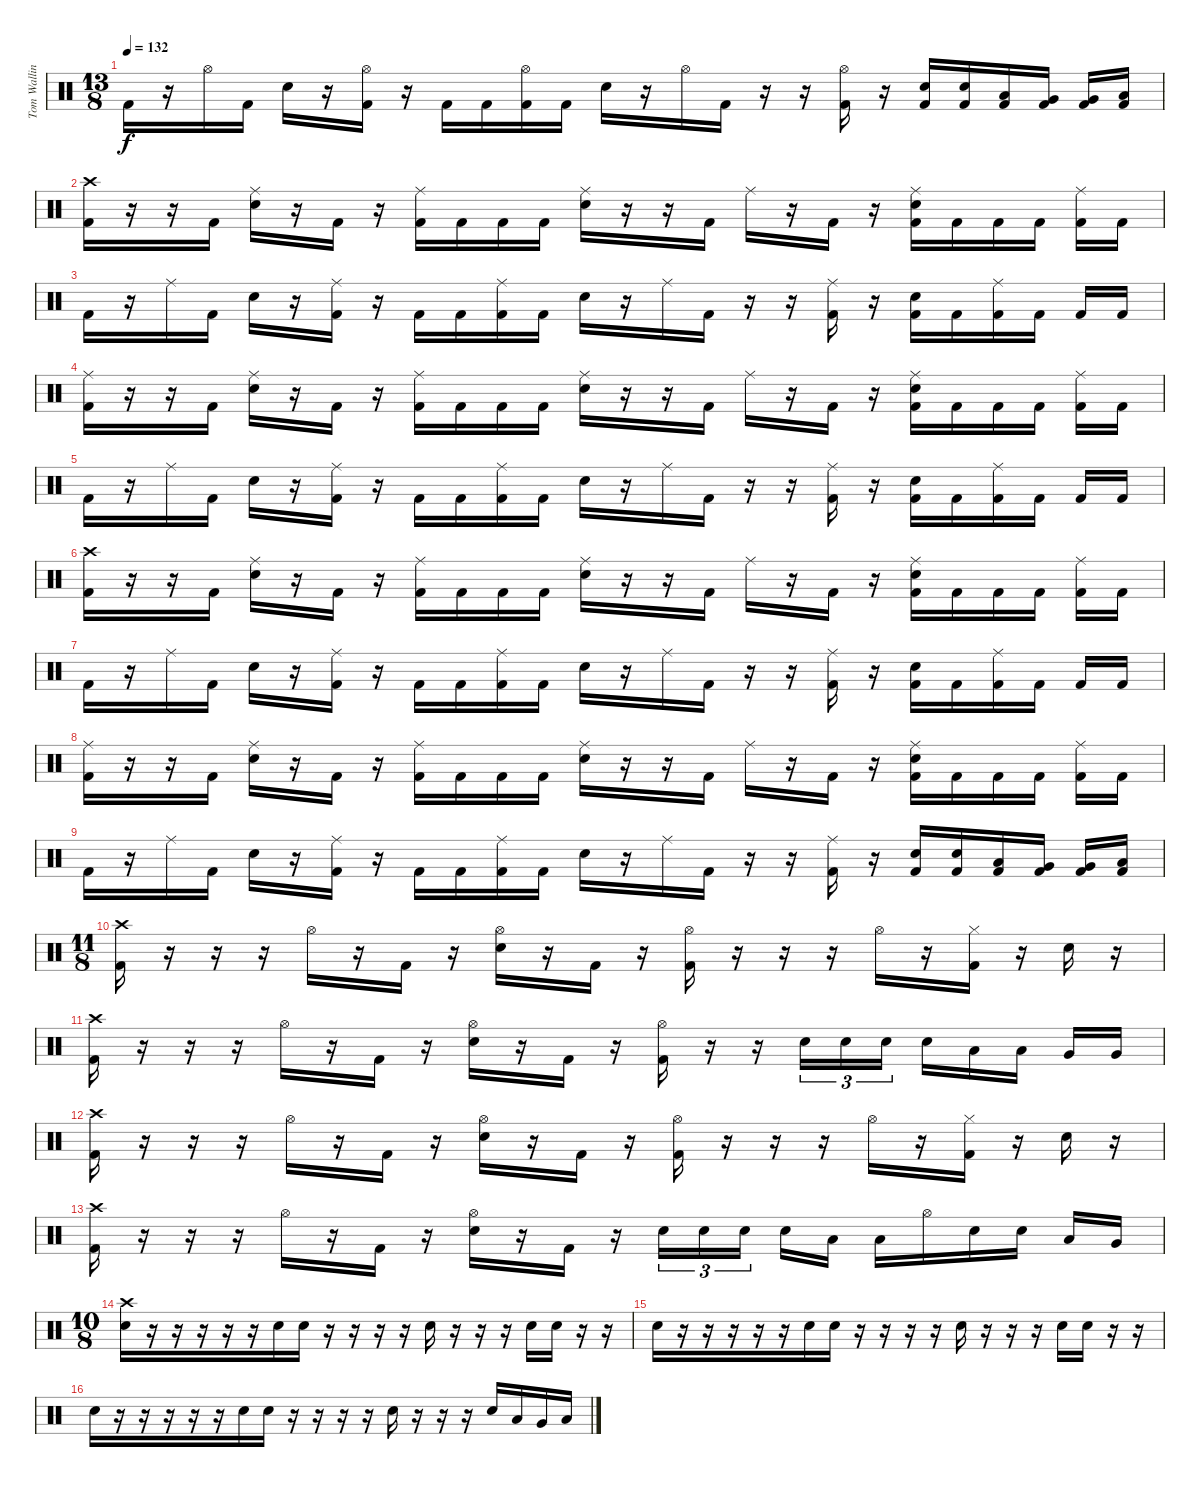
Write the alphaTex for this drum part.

\track ("Tom Walling [Drums]" "Tom Wallin") {instrument percussion}
\staff {score}
\articulation defaults
\ts (13 8)
\tempo 132
\clef neutral
\ks c "Kick (hit) 2".16{dy f}
r.16 "Hi-Hat (open)".16 "Kick (hit) 2".16 "Electric Snare (hit)".16 r.16 ("Hi-Hat (open)" "Kick (hit) 2").16 r.16 "Kick (hit) 2".16 "Kick (hit) 2".16 ("Hi-Hat (open)" "Kick (hit) 2").16 "Kick (hit) 2".16 "Electric Snare (hit)".16 r.16 "Hi-Hat (open)".16 "Kick (hit) 2".16 r.16 r.16 ("Hi-Hat (open)" "Kick (hit) 2").16 r.16 ("Electric Snare (hit)" "Kick (hit) 2").16 ("Electric Snare (hit)" "Kick (hit) 2").16 ("Low Tom (hit)" "Kick (hit) 2").16 ("Very Low Tom (hit)" "Kick (hit) 2").16 ("Very Low Tom (hit)" "Kick (hit) 2").16 ("Low Floor Tom (hit)" "Kick (hit) 2").16 |
("Crash high (hit)" "Kick (hit) 2").16 r.16 r.16 "Kick (hit) 2".16 ("Ride (middle)" "Electric Snare (hit)").16 r.16 "Kick (hit) 2".16 r.16 ("Ride (middle)" "Kick (hit) 2").16 "Kick (hit) 2".16 "Kick (hit) 2".16 "Kick (hit) 2".16 ("Ride (middle)" "Electric Snare (hit)").16 r.16 r.16 "Kick (hit) 2".16 "Ride (middle)".16 r.16 "Kick (hit) 2".16 r.16 ("Ride (middle)" "Electric Snare (hit)" "Kick (hit) 2").16 "Kick (hit) 2".16 "Kick (hit) 2".16 "Kick (hit) 2".16 ("Ride (middle)" "Kick (hit) 2").16 "Kick (hit) 2".16 |
"Kick (hit) 2".16 r.16 "Ride (middle)".16 "Kick (hit) 2".16 "Electric Snare (hit)".16 r.16 ("Ride (middle)" "Kick (hit) 2").16 r.16 "Kick (hit) 2".16 "Kick (hit) 2".16 ("Ride (middle)" "Kick (hit) 2").16 "Kick (hit) 2".16 "Electric Snare (hit)".16 r.16 "Ride (middle)".16 "Kick (hit) 2".16 r.16 r.16 ("Ride (middle)" "Kick (hit) 2").16 r.16 ("Electric Snare (hit)" "Kick (hit) 2").16 "Kick (hit) 2".16 ("Ride (middle)" "Kick (hit) 2").16 "Kick (hit) 2".16 "Kick (hit) 2".16 "Kick (hit) 2".16 |
("Ride (middle)" "Kick (hit) 2").16 r.16 r.16 "Kick (hit) 2".16 ("Ride (middle)" "Electric Snare (hit)").16 r.16 "Kick (hit) 2".16 r.16 ("Ride (middle)" "Kick (hit) 2").16 "Kick (hit) 2".16 "Kick (hit) 2".16 "Kick (hit) 2".16 ("Ride (middle)" "Electric Snare (hit)").16 r.16 r.16 "Kick (hit) 2".16 "Ride (middle)".16 r.16 "Kick (hit) 2".16 r.16 ("Ride (middle)" "Electric Snare (hit)" "Kick (hit) 2").16 "Kick (hit) 2".16 "Kick (hit) 2".16 "Kick (hit) 2".16 ("Ride (middle)" "Kick (hit) 2").16 "Kick (hit) 2".16 |
"Kick (hit) 2".16 r.16 "Ride (middle)".16 "Kick (hit) 2".16 "Electric Snare (hit)".16 r.16 ("Ride (middle)" "Kick (hit) 2").16 r.16 "Kick (hit) 2".16 "Kick (hit) 2".16 ("Ride (middle)" "Kick (hit) 2").16 "Kick (hit) 2".16 "Electric Snare (hit)".16 r.16 "Ride (middle)".16 "Kick (hit) 2".16 r.16 r.16 ("Ride (middle)" "Kick (hit) 2").16 r.16 ("Electric Snare (hit)" "Kick (hit) 2").16 "Kick (hit) 2".16 ("Ride (middle)" "Kick (hit) 2").16 "Kick (hit) 2".16 "Kick (hit) 2".16 "Kick (hit) 2".16 |
("Crash high (hit)" "Kick (hit) 2").16 r.16 r.16 "Kick (hit) 2".16 ("Ride (middle)" "Electric Snare (hit)").16 r.16 "Kick (hit) 2".16 r.16 ("Ride (middle)" "Kick (hit) 2").16 "Kick (hit) 2".16 "Kick (hit) 2".16 "Kick (hit) 2".16 ("Ride (middle)" "Electric Snare (hit)").16 r.16 r.16 "Kick (hit) 2".16 "Ride (middle)".16 r.16 "Kick (hit) 2".16 r.16 ("Ride (middle)" "Electric Snare (hit)" "Kick (hit) 2").16 "Kick (hit) 2".16 "Kick (hit) 2".16 "Kick (hit) 2".16 ("Ride (middle)" "Kick (hit) 2").16 "Kick (hit) 2".16 |
"Kick (hit) 2".16 r.16 "Ride (middle)".16 "Kick (hit) 2".16 "Electric Snare (hit)".16 r.16 ("Ride (middle)" "Kick (hit) 2").16 r.16 "Kick (hit) 2".16 "Kick (hit) 2".16 ("Ride (middle)" "Kick (hit) 2").16 "Kick (hit) 2".16 "Electric Snare (hit)".16 r.16 "Ride (middle)".16 "Kick (hit) 2".16 r.16 r.16 ("Ride (middle)" "Kick (hit) 2").16 r.16 ("Electric Snare (hit)" "Kick (hit) 2").16 "Kick (hit) 2".16 ("Ride (middle)" "Kick (hit) 2").16 "Kick (hit) 2".16 "Kick (hit) 2".16 "Kick (hit) 2".16 |
("Ride (middle)" "Kick (hit) 2").16 r.16 r.16 "Kick (hit) 2".16 ("Ride (middle)" "Electric Snare (hit)").16 r.16 "Kick (hit) 2".16 r.16 ("Ride (middle)" "Kick (hit) 2").16 "Kick (hit) 2".16 "Kick (hit) 2".16 "Kick (hit) 2".16 ("Ride (middle)" "Electric Snare (hit)").16 r.16 r.16 "Kick (hit) 2".16 "Ride (middle)".16 r.16 "Kick (hit) 2".16 r.16 ("Ride (middle)" "Electric Snare (hit)" "Kick (hit) 2").16 "Kick (hit) 2".16 "Kick (hit) 2".16 "Kick (hit) 2".16 ("Ride (middle)" "Kick (hit) 2").16 "Kick (hit) 2".16 |
"Kick (hit) 2".16 r.16 "Ride (middle)".16 "Kick (hit) 2".16 "Electric Snare (hit)".16 r.16 ("Ride (middle)" "Kick (hit) 2").16 r.16 "Kick (hit) 2".16 "Kick (hit) 2".16 ("Ride (middle)" "Kick (hit) 2").16 "Kick (hit) 2".16 "Electric Snare (hit)".16 r.16 "Ride (middle)".16 "Kick (hit) 2".16 r.16 r.16 ("Ride (middle)" "Kick (hit) 2").16 r.16 ("Electric Snare (hit)" "Kick (hit) 2").16 ("Electric Snare (hit)" "Kick (hit) 2").16 ("Low Tom (hit)" "Kick (hit) 2").16 ("Very Low Tom (hit)" "Kick (hit) 2").16 ("Very Low Tom (hit)" "Kick (hit) 2").16 ("Low Floor Tom (hit)" "Kick (hit) 2").16 |
\ts (11 8)
("Crash high (hit)" "Kick (hit) 2").16 r.16 r.16 r.16 "Hi-Hat (open)".16 r.16 "Kick (hit) 2".16 r.16 ("Hi-Hat (open)" "Electric Snare (hit)").16 r.16 "Kick (hit) 2".16 r.16 ("Hi-Hat (open)" "Kick (hit) 2").16 r.16 r.16 r.16 "Hi-Hat (open)".16 r.16 ("Hi-Hat (closed)" "Kick (hit) 2").16 r.16 "Electric Snare (hit)".16 r.16 |
("Crash high (hit)" "Kick (hit) 2").16 r.16 r.16 r.16 "Hi-Hat (open)".16 r.16 "Kick (hit) 2".16 r.16 ("Hi-Hat (open)" "Electric Snare (hit)").16 r.16 "Kick (hit) 2".16 r.16 ("Hi-Hat (open)" "Kick (hit) 2").16 r.16 r.16 "Electric Snare (hit)".16{tu (3 2)} "Electric Snare (hit)".16{tu (3 2)} "Electric Snare (hit)".16{tu (3 2)} "Electric Snare (hit)".16 "Low Tom (hit)".16 "Low Tom (hit)".16 "Very Low Tom (hit)".16 "Very Low Tom (hit)".16 |
("Crash high (hit)" "Kick (hit) 2").16 r.16 r.16 r.16 "Hi-Hat (open)".16 r.16 "Kick (hit) 2".16 r.16 ("Hi-Hat (open)" "Electric Snare (hit)").16 r.16 "Kick (hit) 2".16 r.16 ("Hi-Hat (open)" "Kick (hit) 2").16 r.16 r.16 r.16 "Hi-Hat (open)".16 r.16 ("Hi-Hat (closed)" "Kick (hit) 2").16 r.16 "Electric Snare (hit)".16 r.16 |
("Crash high (hit)" "Kick (hit) 2").16 r.16 r.16 r.16 "Hi-Hat (open)".16 r.16 "Kick (hit) 2".16 r.16 ("Hi-Hat (open)" "Electric Snare (hit)").16 r.16 "Kick (hit) 2".16 r.16 "Electric Snare (hit)".16{tu (3 2)} "Electric Snare (hit)".16{tu (3 2)} "Electric Snare (hit)".16{tu (3 2)} "Electric Snare (hit)".16 "Low Tom (hit)".16 "Low Tom (hit)".16 "Hi-Hat (open)".16 "Electric Snare (hit)".16 "Electric Snare (hit)".16 "Low Tom (hit)".16 "Very Low Tom (hit)".16 |
\ts (10 8)
("Crash high (hit)" "Electric Snare (hit)").16 r.16 r.16 r.16 r.16 r.16 "Electric Snare (hit)".16 "Electric Snare (hit)".16 r.16 r.16 r.16 r.16 "Electric Snare (hit)".16 r.16 r.16 r.16 "Electric Snare (hit)".16 "Electric Snare (hit)".16 r.16 r.16 |
"Electric Snare (hit)".16 r.16 r.16 r.16 r.16 r.16 "Electric Snare (hit)".16 "Electric Snare (hit)".16 r.16 r.16 r.16 r.16 "Electric Snare (hit)".16 r.16 r.16 r.16 "Electric Snare (hit)".16 "Electric Snare (hit)".16 r.16 r.16 |
"Electric Snare (hit)".16 r.16 r.16 r.16 r.16 r.16 "Electric Snare (hit)".16 "Electric Snare (hit)".16 r.16 r.16 r.16 r.16 "Electric Snare (hit)".16 r.16 r.16 r.16 "Electric Snare (hit)".16 "Low Tom (hit)".16 "Very Low Tom (hit)".16 "Low Floor Tom (hit)".16
